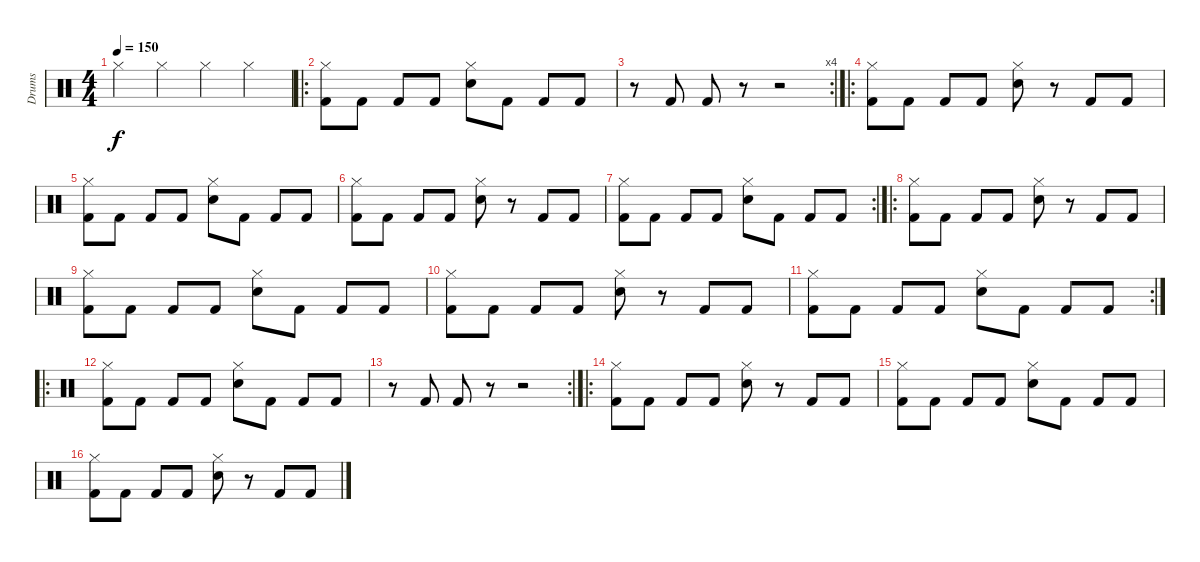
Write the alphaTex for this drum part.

\track ("Drums" "Drums") {instrument percussion}
\staff {score}
\articulation defaults
\ts (4 4)
\tempo 150
\clef neutral
\ks c "Hi-Hat (closed)".4{dy f} "Hi-Hat (closed)".4 "Hi-Hat (closed)".4 "Hi-Hat (closed)".4
|
\ro
("Kick (hit) 2" "Hi-Hat (closed)").8 "Kick (hit) 2".8 "Kick (hit) 2".8 "Kick (hit) 2".8 ("Electric Snare (hit)" "Hi-Hat (closed)").8 "Kick (hit) 2".8 "Kick (hit) 2".8 "Kick (hit) 2".8 |
\rc 4
r.8 "Kick (hit) 2".8 "Kick (hit) 2".8 r.8 r.2 |
\ro
("Kick (hit) 2" "Hi-Hat (closed)").8 "Kick (hit) 2".8 "Kick (hit) 2".8 "Kick (hit) 2".8 ("Electric Snare (hit)" "Hi-Hat (closed)").8 r.8 "Kick (hit) 2".8 "Kick (hit) 2".8 |
("Kick (hit) 2" "Hi-Hat (closed)").8 "Kick (hit) 2".8 "Kick (hit) 2".8 "Kick (hit) 2".8 ("Electric Snare (hit)" "Hi-Hat (closed)").8 "Kick (hit) 2".8 "Kick (hit) 2".8 "Kick (hit) 2".8 |
("Kick (hit) 2" "Hi-Hat (closed)").8 "Kick (hit) 2".8 "Kick (hit) 2".8 "Kick (hit) 2".8 ("Electric Snare (hit)" "Hi-Hat (closed)").8 r.8 "Kick (hit) 2".8 "Kick (hit) 2".8 |
\rc 2
("Kick (hit) 2" "Hi-Hat (closed)").8 "Kick (hit) 2".8 "Kick (hit) 2".8 "Kick (hit) 2".8 ("Electric Snare (hit)" "Hi-Hat (closed)").8 "Kick (hit) 2".8 "Kick (hit) 2".8 "Kick (hit) 2".8 |
\ro
("Kick (hit) 2" "Hi-Hat (closed)").8 "Kick (hit) 2".8 "Kick (hit) 2".8 "Kick (hit) 2".8 ("Electric Snare (hit)" "Hi-Hat (closed)").8 r.8 "Kick (hit) 2".8 "Kick (hit) 2".8 |
("Kick (hit) 2" "Hi-Hat (closed)").8 "Kick (hit) 2".8 "Kick (hit) 2".8 "Kick (hit) 2".8 ("Electric Snare (hit)" "Hi-Hat (closed)").8 "Kick (hit) 2".8 "Kick (hit) 2".8 "Kick (hit) 2".8 |
("Kick (hit) 2" "Hi-Hat (closed)").8 "Kick (hit) 2".8 "Kick (hit) 2".8 "Kick (hit) 2".8 ("Electric Snare (hit)" "Hi-Hat (closed)").8 r.8 "Kick (hit) 2".8 "Kick (hit) 2".8 |
\rc 2
("Kick (hit) 2" "Hi-Hat (closed)").8 "Kick (hit) 2".8 "Kick (hit) 2".8 "Kick (hit) 2".8 ("Electric Snare (hit)" "Hi-Hat (closed)").8 "Kick (hit) 2".8 "Kick (hit) 2".8 "Kick (hit) 2".8 |
\ro
("Kick (hit) 2" "Hi-Hat (closed)").8 "Kick (hit) 2".8 "Kick (hit) 2".8 "Kick (hit) 2".8 ("Electric Snare (hit)" "Hi-Hat (closed)").8 "Kick (hit) 2".8 "Kick (hit) 2".8 "Kick (hit) 2".8 |
\rc 2
r.8 "Kick (hit) 2".8 "Kick (hit) 2".8 r.8 r.2 |
\ro
("Kick (hit) 2" "Hi-Hat (closed)").8 "Kick (hit) 2".8 "Kick (hit) 2".8 "Kick (hit) 2".8 ("Electric Snare (hit)" "Hi-Hat (closed)").8 r.8 "Kick (hit) 2".8 "Kick (hit) 2".8 |
("Kick (hit) 2" "Hi-Hat (closed)").8 "Kick (hit) 2".8 "Kick (hit) 2".8 "Kick (hit) 2".8 ("Electric Snare (hit)" "Hi-Hat (closed)").8 "Kick (hit) 2".8 "Kick (hit) 2".8 "Kick (hit) 2".8 |
("Kick (hit) 2" "Hi-Hat (closed)").8 "Kick (hit) 2".8 "Kick (hit) 2".8 "Kick (hit) 2".8 ("Electric Snare (hit)" "Hi-Hat (closed)").8 r.8 "Kick (hit) 2".8 "Kick (hit) 2".8
